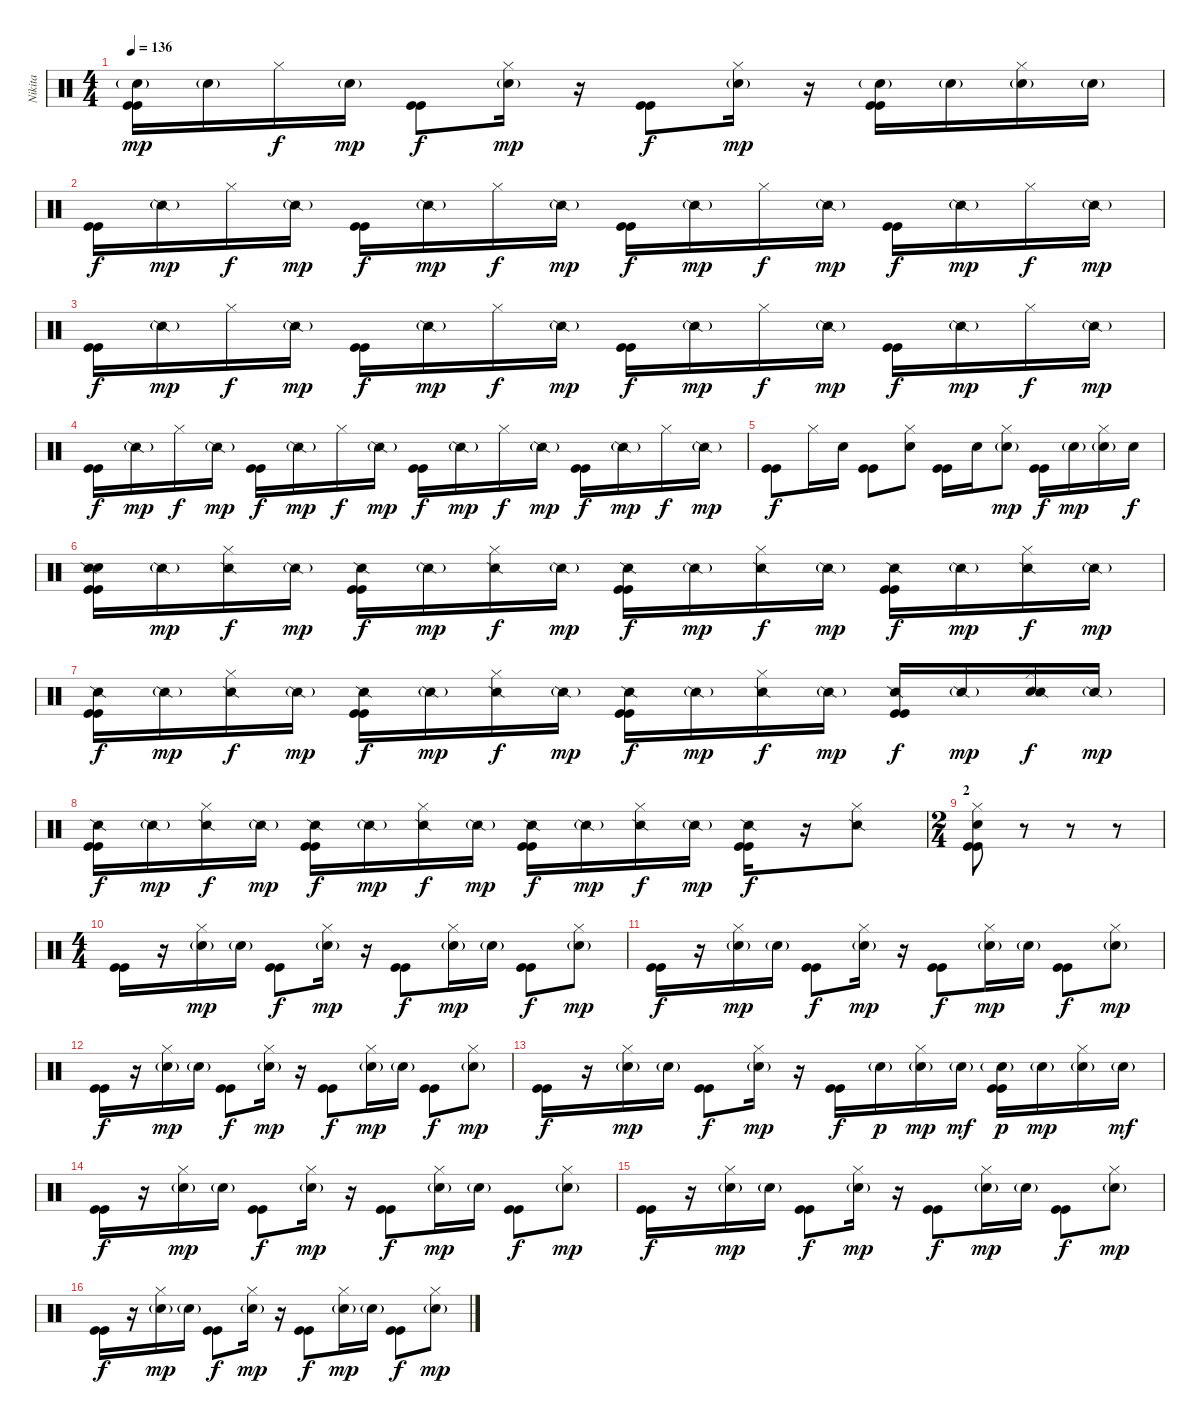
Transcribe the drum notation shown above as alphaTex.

\track ("Nikita" "Nikita") {instrument percussion}
\staff {score}
\articulation defaults
\ts (4 4)
\tempo 136
\clef neutral
\ks c
("Kick (hit)" "Kick (hit)" "Snare (hit) 2"{g}).16{dy mp} "Snare (hit) 2"{g}.16 "Hi-Hat (closed)".16{dy f} "Snare (hit) 2"{g}.16{dy mp} ("Kick (hit)" "Kick (hit)").8{dy f} ("Hi-Hat (closed)" "Snare (hit) 2"{g}).16{dy mp} r.16 ("Kick (hit)" "Kick (hit)").8{dy f} ("Hi-Hat (closed)" "Snare (hit) 2"{g}).16{dy mp} r.16 ("Kick (hit)" "Kick (hit)" "Snare (hit) 2"{g}).16 "Snare (hit) 2"{g}.16 ("Hi-Hat (closed)" "Snare (hit) 2"{g}).16 "Snare (hit) 2"{g}.16 |
("Kick (hit)" "Kick (hit)").16{dy f} "Snare (side stick) 2"{g}.16{dy mp} "Hi-Hat (closed)".16{dy f} "Snare (side stick) 2"{g}.16{dy mp} ("Kick (hit)" "Kick (hit)").16{dy f} "Snare (side stick) 2"{g}.16{dy mp} "Hi-Hat (closed)".16{dy f} "Snare (side stick) 2"{g}.16{dy mp} ("Kick (hit)" "Kick (hit)").16{dy f} "Snare (side stick) 2"{g}.16{dy mp} "Hi-Hat (closed)".16{dy f} "Snare (side stick) 2"{g}.16{dy mp} ("Kick (hit)" "Kick (hit)").16{dy f} "Snare (side stick) 2"{g}.16{dy mp} "Hi-Hat (closed)".16{dy f} "Snare (side stick) 2"{g}.16{dy mp} |
("Kick (hit)" "Kick (hit)").16{dy f} "Snare (side stick) 2"{g}.16{dy mp} "Hi-Hat (closed)".16{dy f} "Snare (side stick) 2"{g}.16{dy mp} ("Kick (hit)" "Kick (hit)").16{dy f} "Snare (side stick) 2"{g}.16{dy mp} "Hi-Hat (closed)".16{dy f} "Snare (side stick) 2"{g}.16{dy mp} ("Kick (hit)" "Kick (hit)").16{dy f} "Snare (side stick) 2"{g}.16{dy mp} "Hi-Hat (closed)".16{dy f} "Snare (side stick) 2"{g}.16{dy mp} ("Kick (hit)" "Kick (hit)").16{dy f} "Snare (side stick) 2"{g}.16{dy mp} "Hi-Hat (closed)".16{dy f} "Snare (side stick) 2"{g}.16{dy mp} |
("Kick (hit)" "Kick (hit)").16{dy f} "Snare (side stick) 2"{g}.16{dy mp} "Hi-Hat (closed)".16{dy f} "Snare (side stick) 2"{g}.16{dy mp} ("Kick (hit)" "Kick (hit)").16{dy f} "Snare (side stick) 2"{g}.16{dy mp} "Hi-Hat (closed)".16{dy f} "Snare (side stick) 2"{g}.16{dy mp} ("Kick (hit)" "Kick (hit)").16{dy f} "Snare (side stick) 2"{g}.16{dy mp} "Hi-Hat (closed)".16{dy f} "Snare (side stick) 2"{g}.16{dy mp} ("Kick (hit)" "Kick (hit)").16{dy f} "Snare (side stick) 2"{g}.16{dy mp} "Hi-Hat (closed)".16{dy f} "Snare (side stick) 2"{g}.16{dy mp} |
("Kick (hit)" "Kick (hit)").8{dy f} "Hi-Hat (closed)".16 "Snare (hit) 2".16 ("Kick (hit)" "Kick (hit)").8 ("Hi-Hat (closed)" "Snare (hit) 2").8 ("Kick (hit)" "Kick (hit)").16 "Snare (hit) 2".16 ("Hi-Hat (closed)" "Snare (hit) 2"{g}).8{dy mp} ("Kick (hit)" "Kick (hit)").16{dy f} "Snare (hit) 2"{g}.16{dy mp} ("Hi-Hat (closed)" "Snare (hit) 2"{g}).16 "Snare (hit) 2".16{dy f} |
("Kick (hit)" "Kick (hit)" "Snare (hit) 2" "Snare (side stick) 2").16 "Snare (side stick) 2"{g}.16{dy mp} ("Hi-Hat (closed)" "Snare (side stick) 2").16{dy f} "Snare (side stick) 2"{g}.16{dy mp} ("Kick (hit)" "Kick (hit)" "Snare (side stick) 2").16{dy f} "Snare (side stick) 2"{g}.16{dy mp} ("Hi-Hat (closed)" "Snare (side stick) 2").16{dy f} "Snare (side stick) 2"{g}.16{dy mp} ("Kick (hit)" "Kick (hit)" "Snare (side stick) 2").16{dy f} "Snare (side stick) 2"{g}.16{dy mp} ("Hi-Hat (closed)" "Snare (side stick) 2").16{dy f} "Snare (side stick) 2"{g}.16{dy mp} ("Kick (hit)" "Kick (hit)" "Snare (side stick) 2").16{dy f} "Snare (side stick) 2"{g}.16{dy mp} ("Hi-Hat (closed)" "Snare (side stick) 2").16{dy f} "Snare (side stick) 2"{g}.16{dy mp} |
("Kick (hit)" "Kick (hit)" "Snare (side stick) 2").16{dy f} "Snare (side stick) 2"{g}.16{dy mp} ("Hi-Hat (closed)" "Snare (side stick) 2").16{dy f} "Snare (side stick) 2"{g}.16{dy mp} ("Kick (hit)" "Kick (hit)" "Snare (side stick) 2").16{dy f} "Snare (side stick) 2"{g}.16{dy mp} ("Hi-Hat (closed)" "Snare (side stick) 2").16{dy f} "Snare (side stick) 2"{g}.16{dy mp} ("Kick (hit)" "Kick (hit)" "Snare (side stick) 2").16{dy f} "Snare (side stick) 2"{g}.16{dy mp} ("Hi-Hat (closed)" "Snare (side stick) 2").16{dy f} "Snare (side stick) 2"{g}.16{dy mp} ("Kick (hit)" "Kick (hit)" "Snare (side stick) 2").16{dy f} "Snare (side stick) 2"{g}.16{dy mp} ("Hi-Hat (closed)" "Snare (hit) 2" "Snare (side stick) 2").16{dy f} "Snare (side stick) 2"{g}.16{dy mp} |
("Kick (hit)" "Kick (hit)" "Snare (side stick) 2").16{dy f} "Snare (side stick) 2"{g}.16{dy mp} ("Hi-Hat (closed)" "Snare (side stick) 2").16{dy f} "Snare (side stick) 2"{g}.16{dy mp} ("Kick (hit)" "Kick (hit)" "Snare (side stick) 2").16{dy f} "Snare (side stick) 2"{g}.16{dy mp} ("Hi-Hat (closed)" "Snare (side stick) 2").16{dy f} "Snare (side stick) 2"{g}.16{dy mp} ("Kick (hit)" "Kick (hit)" "Snare (side stick) 2").16{dy f} "Snare (side stick) 2"{g}.16{dy mp} ("Hi-Hat (closed)" "Snare (side stick) 2").16{dy f} "Snare (side stick) 2"{g}.16{dy mp} ("Kick (hit)" "Kick (hit)" "Snare (side stick) 2").16{dy f} r.16 ("Hi-Hat (closed)" "Snare (side stick) 2").8 |
\ts (2 4)
\section ("" "2")
("Kick (hit)" "Kick (hit)" "Hi-Hat (closed)" "Snare (hit) 2").8 r.8 r.8 r.8 |
\ts (4 4)
("Kick (hit)" "Kick (hit)").16 r.16 ("Hi-Hat (closed)" "Snare (hit) 2"{g}).16{dy mp} "Snare (hit) 2"{g}.16 ("Kick (hit)" "Kick (hit)").8{dy f} ("Hi-Hat (closed)" "Snare (hit) 2"{g}).16{dy mp} r.16 ("Kick (hit)" "Kick (hit)").8{dy f} ("Hi-Hat (closed)" "Snare (hit) 2"{g}).16{dy mp} "Snare (hit) 2"{g}.16 ("Kick (hit)" "Kick (hit)").8{dy f} ("Hi-Hat (closed)" "Snare (hit) 2"{g}).8{dy mp} |
("Kick (hit)" "Kick (hit)").16{dy f} r.16 ("Hi-Hat (closed)" "Snare (hit) 2"{g}).16{dy mp} "Snare (hit) 2"{g}.16 ("Kick (hit)" "Kick (hit)").8{dy f} ("Hi-Hat (closed)" "Snare (hit) 2"{g}).16{dy mp} r.16 ("Kick (hit)" "Kick (hit)").8{dy f} ("Hi-Hat (closed)" "Snare (hit) 2"{g}).16{dy mp} "Snare (hit) 2"{g}.16 ("Kick (hit)" "Kick (hit)").8{dy f} ("Hi-Hat (closed)" "Snare (hit) 2"{g}).8{dy mp} |
("Kick (hit)" "Kick (hit)").16{dy f} r.16 ("Hi-Hat (closed)" "Snare (hit) 2"{g}).16{dy mp} "Snare (hit) 2"{g}.16 ("Kick (hit)" "Kick (hit)").8{dy f} ("Hi-Hat (closed)" "Snare (hit) 2"{g}).16{dy mp} r.16 ("Kick (hit)" "Kick (hit)").8{dy f} ("Hi-Hat (closed)" "Snare (hit) 2"{g}).16{dy mp} "Snare (hit) 2"{g}.16 ("Kick (hit)" "Kick (hit)").8{dy f} ("Hi-Hat (closed)" "Snare (hit) 2"{g}).8{dy mp} |
("Kick (hit)" "Kick (hit)").16{dy f} r.16 ("Hi-Hat (closed)" "Snare (hit) 2"{g}).16{dy mp} "Snare (hit) 2"{g}.16 ("Kick (hit)" "Kick (hit)").8{dy f} ("Hi-Hat (closed)" "Snare (hit) 2"{g}).16{dy mp} r.16 ("Kick (hit)" "Kick (hit)").16{dy f} "Snare (hit) 2"{g}.16{dy p} ("Hi-Hat (closed)" "Snare (hit) 2"{g}).16{dy mp} "Snare (hit) 2"{g}.16{dy mf} ("Kick (hit)" "Kick (hit)" "Snare (hit) 2"{g}).16{dy p} "Snare (hit) 2"{g}.16{dy mp} ("Hi-Hat (closed)" "Snare (hit) 2"{g}).16 "Snare (hit) 2"{g}.16{dy mf} |
("Kick (hit)" "Kick (hit)").16{dy f} r.16 ("Hi-Hat (closed)" "Snare (hit) 2"{g}).16{dy mp} "Snare (hit) 2"{g}.16 ("Kick (hit)" "Kick (hit)").8{dy f} ("Hi-Hat (closed)" "Snare (hit) 2"{g}).16{dy mp} r.16 ("Kick (hit)" "Kick (hit)").8{dy f} ("Hi-Hat (closed)" "Snare (hit) 2"{g}).16{dy mp} "Snare (hit) 2"{g}.16 ("Kick (hit)" "Kick (hit)").8{dy f} ("Hi-Hat (closed)" "Snare (hit) 2"{g}).8{dy mp} |
("Kick (hit)" "Kick (hit)").16{dy f} r.16 ("Hi-Hat (closed)" "Snare (hit) 2"{g}).16{dy mp} "Snare (hit) 2"{g}.16 ("Kick (hit)" "Kick (hit)").8{dy f} ("Hi-Hat (closed)" "Snare (hit) 2"{g}).16{dy mp} r.16 ("Kick (hit)" "Kick (hit)").8{dy f} ("Hi-Hat (closed)" "Snare (hit) 2"{g}).16{dy mp} "Snare (hit) 2"{g}.16 ("Kick (hit)" "Kick (hit)").8{dy f} ("Hi-Hat (closed)" "Snare (hit) 2"{g}).8{dy mp} |
("Kick (hit)" "Kick (hit)").16{dy f} r.16 ("Hi-Hat (closed)" "Snare (hit) 2"{g}).16{dy mp} "Snare (hit) 2"{g}.16 ("Kick (hit)" "Kick (hit)").8{dy f} ("Hi-Hat (closed)" "Snare (hit) 2"{g}).16{dy mp} r.16 ("Kick (hit)" "Kick (hit)").8{dy f} ("Hi-Hat (closed)" "Snare (hit) 2"{g}).16{dy mp} "Snare (hit) 2"{g}.16 ("Kick (hit)" "Kick (hit)").8{dy f} ("Hi-Hat (closed)" "Snare (hit) 2"{g}).8{dy mp}
